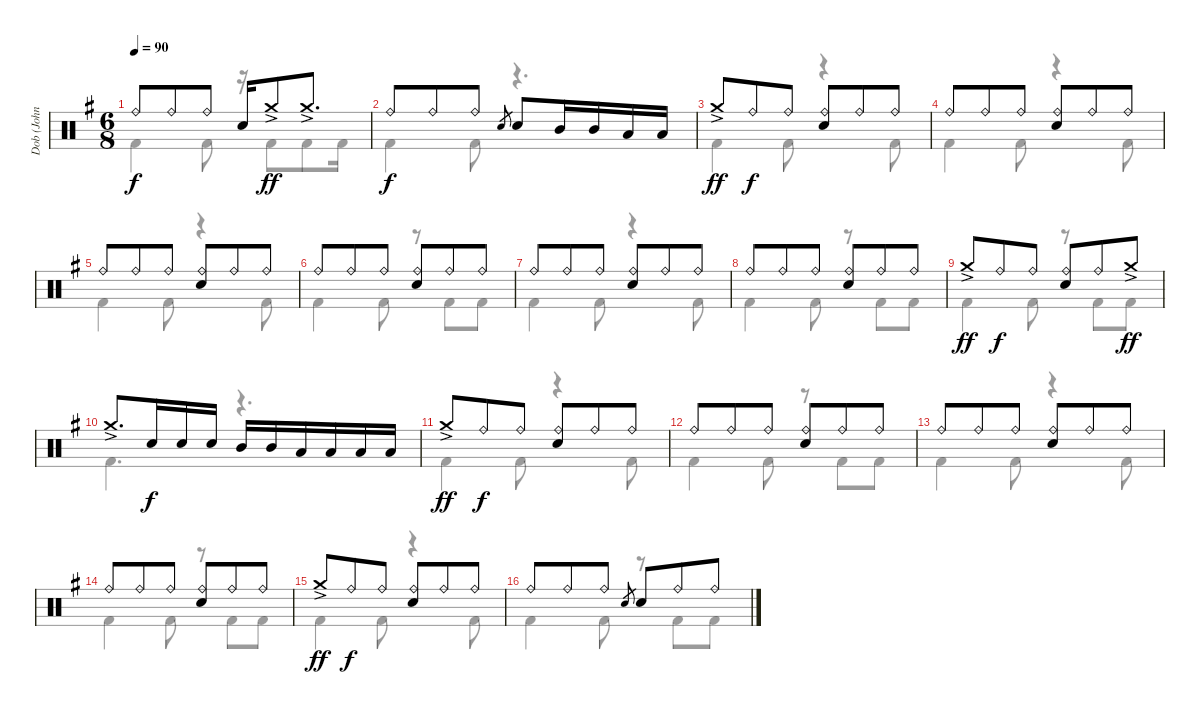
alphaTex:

\track ("Dob (John Macaluso)" "Dob (John ") {instrument percussion}
\staff {score}
\articulation defaults
\voice
\ts (6 8)
\tempo 90
\clef neutral
\ks g "Ride (bell)".8{dy f} "Ride (bell)".8 "Ride (bell)".8 "Electric Snare (hit)".16 "Crash medium (hit)"{ac}.8{dy ff} "Crash medium (hit)"{ac}.8{d}
|
"Ride (bell)".8{dy f} "Ride (bell)".8 "Ride (bell)".8 "Electric Snare (hit)".8{gr} "Electric Snare (hit)".8 "Mid Tom (hit)".16 "Mid Tom (hit)".16 "Low Tom (hit)".16 "Low Tom (hit)".16 |
"Crash medium (hit)"{ac}.8{dy ff} "Ride (bell)".8{dy f} "Ride (bell)".8 ("Ride (bell)" "Electric Snare (hit)").8 "Ride (bell)".8 "Ride (bell)".8 |
"Ride (bell)".8 "Ride (bell)".8 "Ride (bell)".8 ("Ride (bell)" "Electric Snare (hit)").8 "Ride (bell)".8 "Ride (bell)".8 |
"Ride (bell)".8 "Ride (bell)".8 "Ride (bell)".8 ("Ride (bell)" "Electric Snare (hit)").8 "Ride (bell)".8 "Ride (bell)".8 |
"Ride (bell)".8 "Ride (bell)".8 "Ride (bell)".8 ("Ride (bell)" "Electric Snare (hit)").8 "Ride (bell)".8 "Ride (bell)".8 |
"Ride (bell)".8 "Ride (bell)".8 "Ride (bell)".8 ("Ride (bell)" "Electric Snare (hit)").8 "Ride (bell)".8 "Ride (bell)".8 |
"Ride (bell)".8 "Ride (bell)".8 "Ride (bell)".8 ("Ride (bell)" "Electric Snare (hit)").8 "Ride (bell)".8 "Ride (bell)".8 |
"Crash medium (hit)"{ac}.8{dy ff} "Ride (bell)".8{dy f} "Ride (bell)".8 ("Ride (bell)" "Electric Snare (hit)").8 "Ride (bell)".8 "Crash medium (hit)"{ac}.8{dy ff} |
"Crash medium (hit)"{ac}.8{d} "Electric Snare (hit)".16{dy f} "Electric Snare (hit)".16 "Electric Snare (hit)".16 "Mid Tom (hit)".16 "Mid Tom (hit)".16 "Low Tom (hit)".16 "Low Tom (hit)".16 "Low Tom (hit)".16 "Low Tom (hit)".16 |
"Crash medium (hit)"{ac}.8{dy ff} "Ride (bell)".8{dy f} "Ride (bell)".8 ("Ride (bell)" "Electric Snare (hit)").8 "Ride (bell)".8 "Ride (bell)".8 |
"Ride (bell)".8 "Ride (bell)".8 "Ride (bell)".8 ("Ride (bell)" "Electric Snare (hit)").8 "Ride (bell)".8 "Ride (bell)".8 |
"Ride (bell)".8 "Ride (bell)".8 "Ride (bell)".8 ("Ride (bell)" "Electric Snare (hit)").8 "Ride (bell)".8 "Ride (bell)".8 |
"Ride (bell)".8 "Ride (bell)".8 "Ride (bell)".8 ("Ride (bell)" "Electric Snare (hit)").8 "Ride (bell)".8 "Ride (bell)".8 |
"Crash medium (hit)"{ac}.8{dy ff} "Ride (bell)".8{dy f} "Ride (bell)".8 ("Ride (bell)" "Electric Snare (hit)").8 "Ride (bell)".8 "Ride (bell)".8 |
"Ride (bell)".8 "Ride (bell)".8 "Ride (bell)".8 "Electric Snare (hit)".8{gr} "Electric Snare (hit)".8 "Ride (bell)".8 "Ride (bell)".8
\voice
\clef neutral
\ottava regular
\simile none
\ks g "Kick (hit) 2".4{dy f} "Kick (hit) 2".8
r.16 "Kick (hit) 2".8 "Kick (hit) 2".8 "Kick (hit) 2".16 |
"Kick (hit) 2".4 "Kick (hit) 2".8 r.4{d} |
"Kick (hit) 2".4 "Kick (hit) 2".8 r.4 "Kick (hit) 2".8 |
"Kick (hit) 2".4 "Kick (hit) 2".8 r.4 "Kick (hit) 2".8 |
"Kick (hit) 2".4 "Kick (hit) 2".8 r.4 "Kick (hit) 2".8 |
"Kick (hit) 2".4 "Kick (hit) 2".8 r.8 "Kick (hit) 2".8 "Kick (hit) 2".8 |
"Kick (hit) 2".4 "Kick (hit) 2".8 r.4 "Kick (hit) 2".8 |
"Kick (hit) 2".4 "Kick (hit) 2".8 r.8 "Kick (hit) 2".8 "Kick (hit) 2".8 |
"Kick (hit) 2".4 "Kick (hit) 2".8 r.8 "Kick (hit) 2".8 "Kick (hit) 2".8 |
"Kick (hit) 2".4{d} r.4{d} |
"Kick (hit) 2".4 "Kick (hit) 2".8 r.4 "Kick (hit) 2".8 |
"Kick (hit) 2".4 "Kick (hit) 2".8 r.8 "Kick (hit) 2".8 "Kick (hit) 2".8 |
"Kick (hit) 2".4 "Kick (hit) 2".8 r.4 "Kick (hit) 2".8 |
"Kick (hit) 2".4 "Kick (hit) 2".8 r.8 "Kick (hit) 2".8 "Kick (hit) 2".8 |
"Kick (hit) 2".4 "Kick (hit) 2".8 r.4 "Kick (hit) 2".8 |
"Kick (hit) 2".4 "Kick (hit) 2".8 r.8 "Kick (hit) 2".8 "Kick (hit) 2".8
